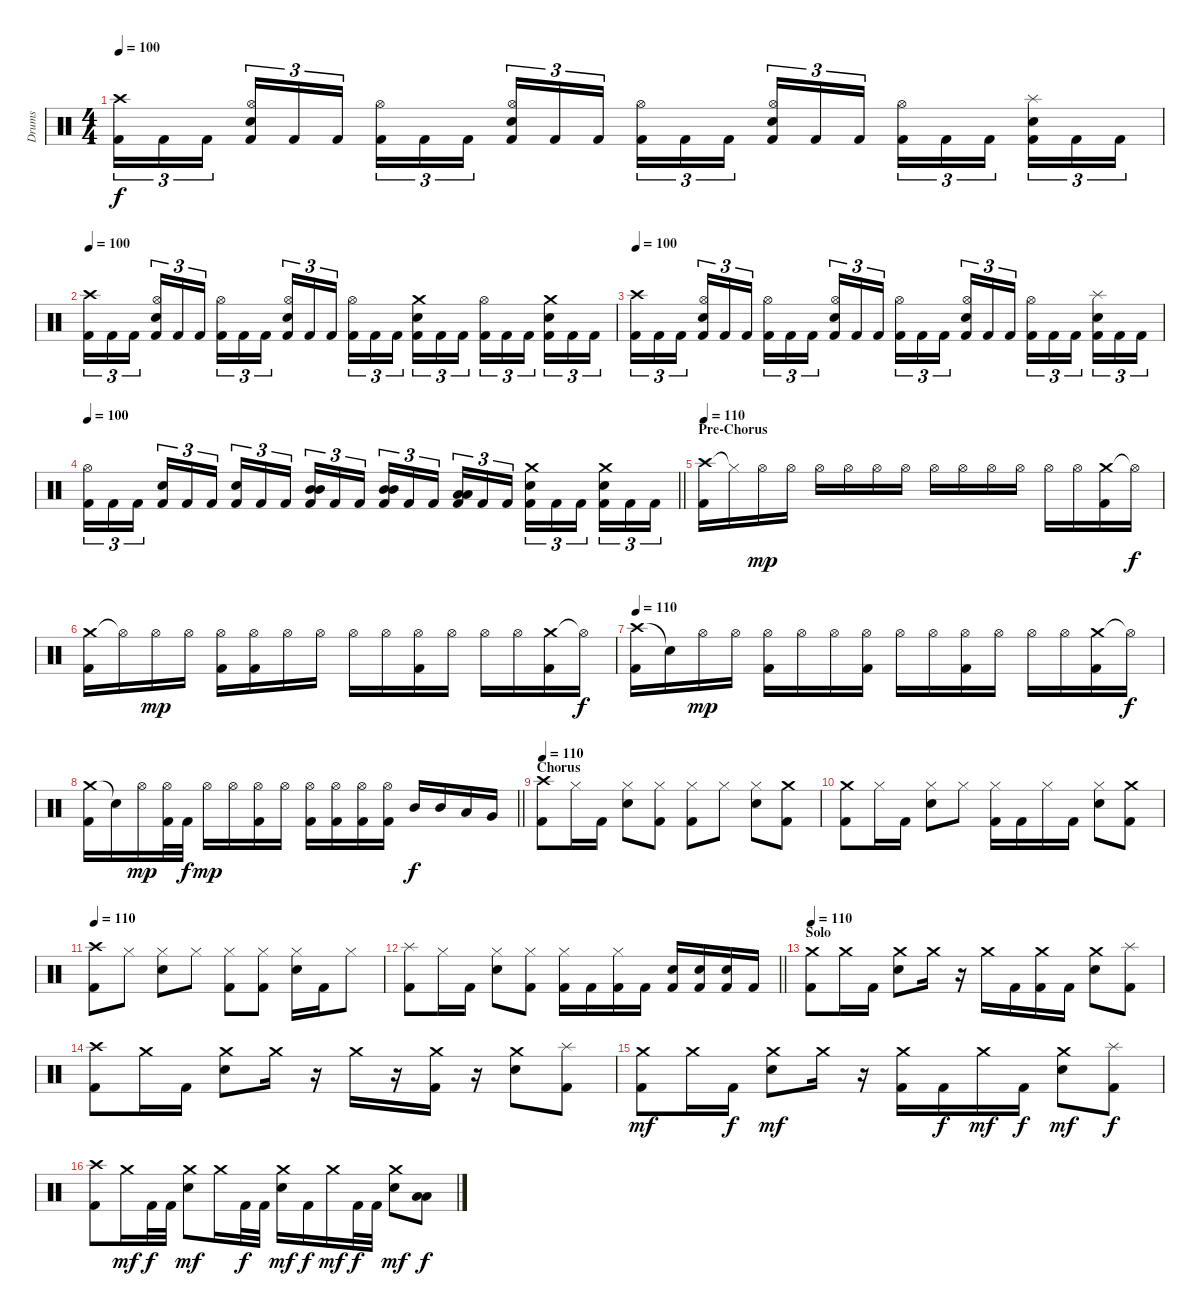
\track ("Drums" "Drums") {instrument percussion}
\staff {score}
\articulation defaults
\ts (4 4)
\tempo 100
\clef neutral
\ks c
("Crash high (hit)" "Kick (hit) 2").16{tu (3 2) dy f} "Kick (hit) 2".16{tu (3 2)} "Kick (hit) 2".16{tu (3 2) beam splitsecondary} ("Hi-Hat (open)" "Electric Snare (hit)" "Kick (hit) 2").16{tu (3 2)} "Kick (hit) 2".16{tu (3 2)} "Kick (hit) 2".16{tu (3 2)} ("Hi-Hat (open)" "Kick (hit) 2").16{tu (3 2)} "Kick (hit) 2".16{tu (3 2)} "Kick (hit) 2".16{tu (3 2) beam splitsecondary} ("Hi-Hat (open)" "Electric Snare (hit)" "Kick (hit) 2").16{tu (3 2)} "Kick (hit) 2".16{tu (3 2)} "Kick (hit) 2".16{tu (3 2)} ("Hi-Hat (open)" "Kick (hit) 2").16{tu (3 2)} "Kick (hit) 2".16{tu (3 2)} "Kick (hit) 2".16{tu (3 2) beam splitsecondary} ("Hi-Hat (open)" "Electric Snare (hit)" "Kick (hit) 2").16{tu (3 2)} "Kick (hit) 2".16{tu (3 2)} "Kick (hit) 2".16{tu (3 2)} ("Hi-Hat (open)" "Kick (hit) 2").16{tu (3 2)} "Kick (hit) 2".16{tu (3 2)} "Kick (hit) 2".16{tu (3 2) beam splitsecondary} ("Splash (hit)" "Electric Snare (hit)" "Kick (hit) 2").16{tu (3 2)} "Kick (hit) 2".16{tu (3 2)} "Kick (hit) 2".16{tu (3 2)} |
\tempo 100
("Crash high (hit)" "Kick (hit) 2").16{tu (3 2)} "Kick (hit) 2".16{tu (3 2)} "Kick (hit) 2".16{tu (3 2) beam splitsecondary} ("Hi-Hat (open)" "Electric Snare (hit)" "Kick (hit) 2").16{tu (3 2)} "Kick (hit) 2".16{tu (3 2)} "Kick (hit) 2".16{tu (3 2)} ("Hi-Hat (open)" "Kick (hit) 2").16{tu (3 2)} "Kick (hit) 2".16{tu (3 2)} "Kick (hit) 2".16{tu (3 2) beam splitsecondary} ("Hi-Hat (open)" "Electric Snare (hit)" "Kick (hit) 2").16{tu (3 2)} "Kick (hit) 2".16{tu (3 2)} "Kick (hit) 2".16{tu (3 2)} ("Hi-Hat (open)" "Kick (hit) 2").16{tu (3 2)} "Kick (hit) 2".16{tu (3 2)} "Kick (hit) 2".16{tu (3 2) beam splitsecondary} ("Crash medium (hit)" "Electric Snare (hit)" "Kick (hit) 2").16{tu (3 2)} "Kick (hit) 2".16{tu (3 2)} "Kick (hit) 2".16{tu (3 2)} ("Hi-Hat (open)" "Kick (hit) 2").16{tu (3 2)} "Kick (hit) 2".16{tu (3 2)} "Kick (hit) 2".16{tu (3 2) beam splitsecondary} ("Crash medium (hit)" "Electric Snare (hit)" "Kick (hit) 2").16{tu (3 2)} "Kick (hit) 2".16{tu (3 2)} "Kick (hit) 2".16{tu (3 2)} |
\tempo 100
("Crash high (hit)" "Kick (hit) 2").16{tu (3 2)} "Kick (hit) 2".16{tu (3 2)} "Kick (hit) 2".16{tu (3 2) beam splitsecondary} ("Hi-Hat (open)" "Electric Snare (hit)" "Kick (hit) 2").16{tu (3 2)} "Kick (hit) 2".16{tu (3 2)} "Kick (hit) 2".16{tu (3 2)} ("Hi-Hat (open)" "Kick (hit) 2").16{tu (3 2)} "Kick (hit) 2".16{tu (3 2)} "Kick (hit) 2".16{tu (3 2) beam splitsecondary} ("Hi-Hat (open)" "Electric Snare (hit)" "Kick (hit) 2").16{tu (3 2)} "Kick (hit) 2".16{tu (3 2)} "Kick (hit) 2".16{tu (3 2)} ("Hi-Hat (open)" "Kick (hit) 2").16{tu (3 2)} "Kick (hit) 2".16{tu (3 2)} "Kick (hit) 2".16{tu (3 2) beam splitsecondary} ("Hi-Hat (open)" "Electric Snare (hit)" "Kick (hit) 2").16{tu (3 2)} "Kick (hit) 2".16{tu (3 2)} "Kick (hit) 2".16{tu (3 2)} ("Hi-Hat (open)" "Kick (hit) 2").16{tu (3 2)} "Kick (hit) 2".16{tu (3 2)} "Kick (hit) 2".16{tu (3 2) beam splitsecondary} ("Splash (hit)" "Electric Snare (hit)" "Kick (hit) 2").16{tu (3 2)} "Kick (hit) 2".16{tu (3 2)} "Kick (hit) 2".16{tu (3 2)} |
\tempo 100
\barLineRight lightlight
("Hi-Hat (open)" "Kick (hit) 2").16{tu (3 2)} "Kick (hit) 2".16{tu (3 2)} "Kick (hit) 2".16{tu (3 2) beam splitsecondary} ("Electric Snare (hit)" "Kick (hit) 2").16{tu (3 2)} "Kick (hit) 2".16{tu (3 2)} "Kick (hit) 2".16{tu (3 2)} ("Electric Snare (hit)" "Kick (hit) 2").16{tu (3 2)} "Kick (hit) 2".16{tu (3 2)} "Kick (hit) 2".16{tu (3 2) beam splitsecondary} ("Mid Tom (hit)" "Mid Tom (hit)" "Kick (hit) 2").16{tu (3 2)} "Kick (hit) 2".16{tu (3 2)} "Kick (hit) 2".16{tu (3 2)} ("Mid Tom (hit)" "Mid Tom (hit)" "Kick (hit) 2").16{tu (3 2)} "Kick (hit) 2".16{tu (3 2)} "Kick (hit) 2".16{tu (3 2) beam splitsecondary} ("Low Tom (hit)" "Low Tom (hit)" "Kick (hit) 2").16{tu (3 2)} "Kick (hit) 2".16{tu (3 2)} "Kick (hit) 2".16{tu (3 2)} ("Crash medium (hit)" "Electric Snare (hit)" "Kick (hit) 2").16{tu (3 2)} "Kick (hit) 2".16{tu (3 2)} "Kick (hit) 2".16{tu (3 2) beam splitsecondary} ("Crash medium (hit)" "Electric Snare (hit)" "Kick (hit) 2").16{tu (3 2)} "Kick (hit) 2".16{tu (3 2)} "Kick (hit) 2".16{tu (3 2)} |
\section ("" "Pre-Chorus")
\tempo 110
("Crash high (hit)" "Kick (hit) 2").16 "Hi-Hat (closed)"{t}.16 "Hi-Hat (open)".16{dy mp} "Hi-Hat (open)".16 "Hi-Hat (open)".16 "Hi-Hat (open)".16 "Hi-Hat (open)".16 "Hi-Hat (open)".16 "Hi-Hat (open)".16 "Hi-Hat (open)".16 "Hi-Hat (open)".16 "Hi-Hat (open)".16 "Hi-Hat (open)".16 "Hi-Hat (open)".16 ("Crash medium (hit)" "Kick (hit) 2").16 "Hi-Hat (open)"{t}.16{dy f} |
("Crash medium (hit)" "Kick (hit) 2").16 "Hi-Hat (open)"{t}.16 "Hi-Hat (open)".16{dy mp} "Hi-Hat (open)".16 ("Hi-Hat (open)" "Kick (hit) 2").16 ("Hi-Hat (open)" "Kick (hit) 2").16 "Hi-Hat (open)".16 "Hi-Hat (open)".16 "Hi-Hat (open)".16 "Hi-Hat (open)".16 ("Hi-Hat (open)" "Kick (hit) 2").16 "Hi-Hat (open)".16 "Hi-Hat (open)".16 "Hi-Hat (open)".16 ("Crash medium (hit)" "Kick (hit) 2").16 "Hi-Hat (open)"{t}.16{dy f} |
\tempo 110
("Crash high (hit)" "Kick (hit) 2").16 "Snare (hit)"{t}.16 "Hi-Hat (open)".16{dy mp} "Hi-Hat (open)".16 ("Hi-Hat (open)" "Kick (hit) 2").16 "Hi-Hat (open)".16 "Hi-Hat (open)".16 ("Hi-Hat (open)" "Kick (hit) 2").16 "Hi-Hat (open)".16 "Hi-Hat (open)".16 ("Hi-Hat (open)" "Kick (hit) 2").16 "Hi-Hat (open)".16 "Hi-Hat (open)".16 "Hi-Hat (open)".16 ("Crash medium (hit)" "Kick (hit) 2").16 "Hi-Hat (open)"{t}.16{dy f} |
\barLineRight lightlight
("Crash medium (hit)" "Kick (hit) 2").16 "Snare (hit)"{t}.16 "Hi-Hat (open)".16{dy mp} ("Hi-Hat (open)" "Kick (hit) 2").32 "Kick (hit) 2".32{dy f} "Hi-Hat (open)".16{dy mp} "Hi-Hat (open)".16 ("Hi-Hat (open)" "Kick (hit) 2").16 "Hi-Hat (open)".16 ("Hi-Hat (open)" "Kick (hit) 2").16 ("Hi-Hat (open)" "Kick (hit) 2").16 ("Hi-Hat (open)" "Kick (hit) 2").16 ("Hi-Hat (open)" "Kick (hit) 2").16 "Mid Tom (hit)".16{dy f} "Mid Tom (hit)".16 "Low Tom (hit)".16 "Very Low Tom (hit)".16 |
\section ("" "Chorus")
\tempo 110
("Crash high (hit)" "Kick (hit) 2").8 "Hi-Hat (closed)".16 "Kick (hit) 2".16 ("Hi-Hat (closed)" "Electric Snare (hit)").8 ("Hi-Hat (closed)" "Kick (hit) 2").8 ("Hi-Hat (closed)" "Kick (hit) 2").8 "Hi-Hat (closed)".8 ("Hi-Hat (closed)" "Electric Snare (hit)").8 ("Crash medium (hit)" "Kick (hit) 2").8 |
("Crash medium (hit)" "Kick (hit) 2").8 "Hi-Hat (closed)".16 "Kick (hit) 2".16 ("Hi-Hat (closed)" "Electric Snare (hit)").8 "Hi-Hat (closed)".8 ("Hi-Hat (closed)" "Kick (hit) 2").16 "Kick (hit) 2".16 "Hi-Hat (closed)".16 "Kick (hit) 2".16 ("Hi-Hat (closed)" "Electric Snare (hit)").8 ("Crash medium (hit)" "Kick (hit) 2").8 |
\tempo 110
("Crash high (hit)" "Kick (hit) 2").8 "Hi-Hat (closed)".8 ("Hi-Hat (closed)" "Electric Snare (hit)").8 "Hi-Hat (closed)".8 ("Hi-Hat (closed)" "Kick (hit) 2").8 ("Hi-Hat (closed)" "Kick (hit) 2").8 ("Hi-Hat (closed)" "Electric Snare (hit)").16 "Kick (hit) 2".16 "Hi-Hat (closed)".8 |
\barLineRight lightlight
("Splash (hit)" "Kick (hit) 2").8 "Hi-Hat (closed)".16 "Kick (hit) 2".16 ("Hi-Hat (closed)" "Electric Snare (hit)").8 ("Hi-Hat (closed)" "Kick (hit) 2").8 ("Hi-Hat (closed)" "Kick (hit) 2").16 "Kick (hit) 2".16 ("Hi-Hat (closed)" "Kick (hit) 2").16 "Kick (hit) 2".16 ("Electric Snare (hit)" "Kick (hit) 2").16 ("Electric Snare (hit)" "Kick (hit) 2").16 ("Electric Snare (hit)" "Kick (hit) 2").16 "Kick (hit) 2".16 |
\section ("" "Solo")
\tempo 110
("Crash medium (hit)" "Kick (hit) 2").8 "Crash medium (hit)".16 "Kick (hit) 2".16 ("Crash medium (hit)" "Electric Snare (hit)").8 "Crash medium (hit)".16 r.16 "Crash medium (hit)".16 "Kick (hit) 2".16 ("Crash medium (hit)" "Kick (hit) 2").16 "Kick (hit) 2".16 ("Crash medium (hit)" "Electric Snare (hit)").8 ("Splash (hit)" "Kick (hit) 2").8 |
("Crash high (hit)" "Kick (hit) 2").8 "Crash medium (hit)".16 "Kick (hit) 2".16 ("Crash medium (hit)" "Electric Snare (hit)").8 "Crash medium (hit)".16 r.16 "Crash medium (hit)".16 r.16 ("Crash medium (hit)" "Kick (hit) 2").16 r.16 ("Crash medium (hit)" "Electric Snare (hit)").8 ("Splash (hit)" "Kick (hit) 2").8 |
("Crash medium (hit)" "Kick (hit) 2").8{dy mf} "Crash medium (hit)".16 "Kick (hit) 2".16{dy f} ("Crash medium (hit)" "Electric Snare (hit)").8{dy mf} "Crash medium (hit)".16 r.16 ("Crash medium (hit)" "Kick (hit) 2").16 "Kick (hit) 2".16{dy f} "Crash medium (hit)".16{dy mf} "Kick (hit) 2".16{dy f} ("Crash medium (hit)" "Electric Snare (hit)").8{dy mf} ("Splash (hit)" "Kick (hit) 2").8{dy f} |
("Crash high (hit)" "Kick (hit) 2").8 "Crash medium (hit)".16{dy mf} "Kick (hit) 2".32{dy f} "Kick (hit) 2".32 ("Crash medium (hit)" "Electric Snare (hit)").8{dy mf} "Crash medium (hit)".16 "Kick (hit) 2".32{dy f} "Kick (hit) 2".32 ("Crash medium (hit)" "Electric Snare (hit)").16{dy mf} "Kick (hit) 2".16{dy f} "Crash medium (hit)".16{dy mf} "Kick (hit) 2".32{dy f} "Kick (hit) 2".32 ("Crash medium (hit)" "Electric Snare (hit)").8{dy mf} ("Low Tom (hit)" "Low Floor Tom (hit)").8{dy f}
